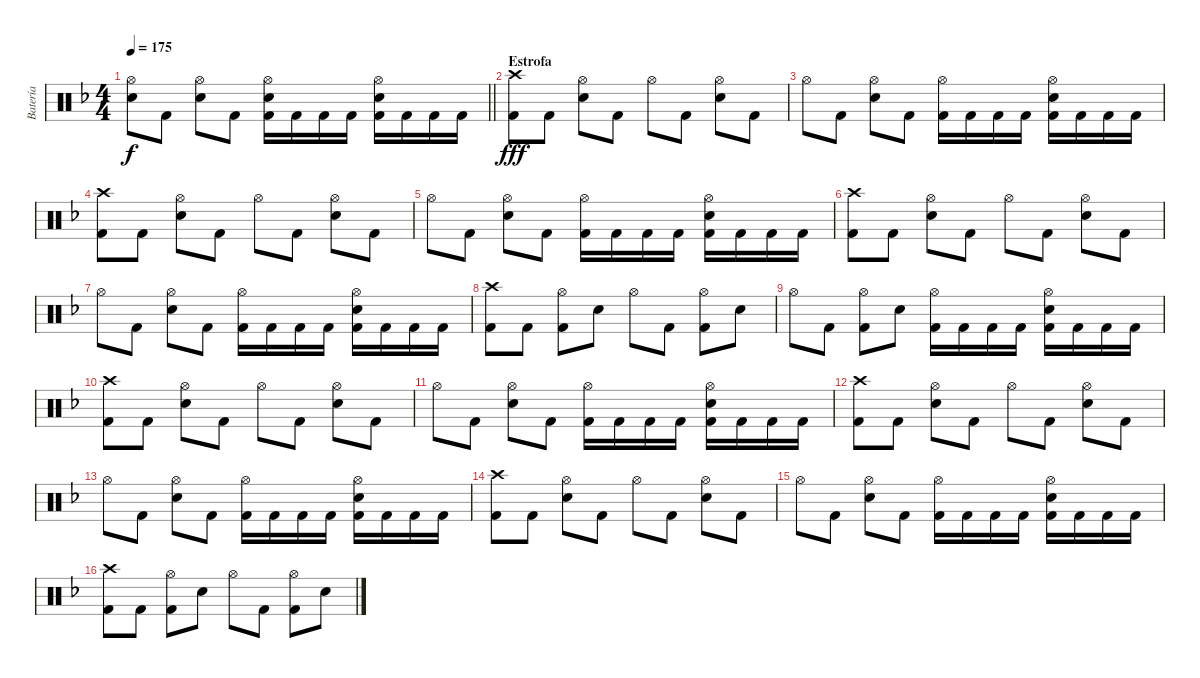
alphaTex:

\track ("Batería" "Batería") {instrument percussion}
\staff {score}
\articulation defaults
\ts (4 4)
\tempo 175
\clef neutral
\barLineRight lightlight
\ks dminor
("Hi-Hat (open)" "Snare (hit) 2").8{dy f} "Kick (hit) 2".8 ("Hi-Hat (open)" "Snare (hit) 2").8 "Kick (hit) 2".8 ("Hi-Hat (open)" "Snare (hit) 2" "Kick (hit) 2").16 "Kick (hit) 2".16 "Kick (hit) 2".16 "Kick (hit) 2".16 ("Hi-Hat (open)" "Snare (hit) 2" "Kick (hit) 2").16 "Kick (hit) 2".16 "Kick (hit) 2".16 "Kick (hit) 2".16 |
\section ("" "Estrofa")
("Crash high (hit)" "Kick (hit) 2").8{dy fff} "Kick (hit) 2".8 ("Hi-Hat (open)" "Snare (hit) 2").8 "Kick (hit) 2".8 "Hi-Hat (open)".8 "Kick (hit) 2".8 ("Hi-Hat (open)" "Snare (hit) 2").8 "Kick (hit) 2".8 |
"Hi-Hat (open)".8 "Kick (hit) 2".8 ("Hi-Hat (open)" "Snare (hit) 2").8 "Kick (hit) 2".8 ("Hi-Hat (open)" "Kick (hit) 2").16 "Kick (hit) 2".16 "Kick (hit) 2".16 "Kick (hit) 2".16 ("Hi-Hat (open)" "Snare (hit) 2" "Kick (hit) 2").16 "Kick (hit) 2".16 "Kick (hit) 2".16 "Kick (hit) 2".16 |
("Crash high (hit)" "Kick (hit) 2").8 "Kick (hit) 2".8 ("Hi-Hat (open)" "Snare (hit) 2").8 "Kick (hit) 2".8 "Hi-Hat (open)".8 "Kick (hit) 2".8 ("Hi-Hat (open)" "Snare (hit) 2").8 "Kick (hit) 2".8 |
"Hi-Hat (open)".8 "Kick (hit) 2".8 ("Hi-Hat (open)" "Snare (hit) 2").8 "Kick (hit) 2".8 ("Hi-Hat (open)" "Kick (hit) 2").16 "Kick (hit) 2".16 "Kick (hit) 2".16 "Kick (hit) 2".16 ("Hi-Hat (open)" "Snare (hit) 2" "Kick (hit) 2").16 "Kick (hit) 2".16 "Kick (hit) 2".16 "Kick (hit) 2".16 |
("Crash high (hit)" "Kick (hit) 2").8 "Kick (hit) 2".8 ("Hi-Hat (open)" "Snare (hit) 2").8 "Kick (hit) 2".8 "Hi-Hat (open)".8 "Kick (hit) 2".8 ("Hi-Hat (open)" "Snare (hit) 2").8 "Kick (hit) 2".8 |
"Hi-Hat (open)".8 "Kick (hit) 2".8 ("Hi-Hat (open)" "Snare (hit) 2").8 "Kick (hit) 2".8 ("Hi-Hat (open)" "Kick (hit) 2").16 "Kick (hit) 2".16 "Kick (hit) 2".16 "Kick (hit) 2".16 ("Hi-Hat (open)" "Snare (hit) 2" "Kick (hit) 2").16 "Kick (hit) 2".16 "Kick (hit) 2".16 "Kick (hit) 2".16 |
("Crash high (hit)" "Kick (hit) 2").8 "Kick (hit) 2".8 ("Hi-Hat (open)" "Kick (hit) 2").8 "Snare (hit) 2".8 "Hi-Hat (open)".8 "Kick (hit) 2".8 ("Hi-Hat (open)" "Kick (hit) 2").8 "Snare (hit) 2".8 |
"Hi-Hat (open)".8 "Kick (hit) 2".8 ("Hi-Hat (open)" "Kick (hit) 2").8 "Snare (hit) 2".8 ("Hi-Hat (open)" "Kick (hit) 2").16 "Kick (hit) 2".16 "Kick (hit) 2".16 "Kick (hit) 2".16 ("Hi-Hat (open)" "Snare (hit) 2" "Kick (hit) 2").16 "Kick (hit) 2".16 "Kick (hit) 2".16 "Kick (hit) 2".16 |
("Crash high (hit)" "Kick (hit) 2").8 "Kick (hit) 2".8 ("Hi-Hat (open)" "Snare (hit) 2").8 "Kick (hit) 2".8 "Hi-Hat (open)".8 "Kick (hit) 2".8 ("Hi-Hat (open)" "Snare (hit) 2").8 "Kick (hit) 2".8 |
"Hi-Hat (open)".8 "Kick (hit) 2".8 ("Hi-Hat (open)" "Snare (hit) 2").8 "Kick (hit) 2".8 ("Hi-Hat (open)" "Kick (hit) 2").16 "Kick (hit) 2".16 "Kick (hit) 2".16 "Kick (hit) 2".16 ("Hi-Hat (open)" "Snare (hit) 2" "Kick (hit) 2").16 "Kick (hit) 2".16 "Kick (hit) 2".16 "Kick (hit) 2".16 |
("Crash high (hit)" "Kick (hit) 2").8 "Kick (hit) 2".8 ("Hi-Hat (open)" "Snare (hit) 2").8 "Kick (hit) 2".8 "Hi-Hat (open)".8 "Kick (hit) 2".8 ("Hi-Hat (open)" "Snare (hit) 2").8 "Kick (hit) 2".8 |
"Hi-Hat (open)".8 "Kick (hit) 2".8 ("Hi-Hat (open)" "Snare (hit) 2").8 "Kick (hit) 2".8 ("Hi-Hat (open)" "Kick (hit) 2").16 "Kick (hit) 2".16 "Kick (hit) 2".16 "Kick (hit) 2".16 ("Hi-Hat (open)" "Snare (hit) 2" "Kick (hit) 2").16 "Kick (hit) 2".16 "Kick (hit) 2".16 "Kick (hit) 2".16 |
("Crash high (hit)" "Kick (hit) 2").8 "Kick (hit) 2".8 ("Hi-Hat (open)" "Snare (hit) 2").8 "Kick (hit) 2".8 "Hi-Hat (open)".8 "Kick (hit) 2".8 ("Hi-Hat (open)" "Snare (hit) 2").8 "Kick (hit) 2".8 |
"Hi-Hat (open)".8 "Kick (hit) 2".8 ("Hi-Hat (open)" "Snare (hit) 2").8 "Kick (hit) 2".8 ("Hi-Hat (open)" "Kick (hit) 2").16 "Kick (hit) 2".16 "Kick (hit) 2".16 "Kick (hit) 2".16 ("Hi-Hat (open)" "Snare (hit) 2" "Kick (hit) 2").16 "Kick (hit) 2".16 "Kick (hit) 2".16 "Kick (hit) 2".16 |
("Crash high (hit)" "Kick (hit) 2").8 "Kick (hit) 2".8 ("Hi-Hat (open)" "Kick (hit) 2").8 "Snare (hit) 2".8 "Hi-Hat (open)".8 "Kick (hit) 2".8 ("Hi-Hat (open)" "Kick (hit) 2").8 "Snare (hit) 2".8
